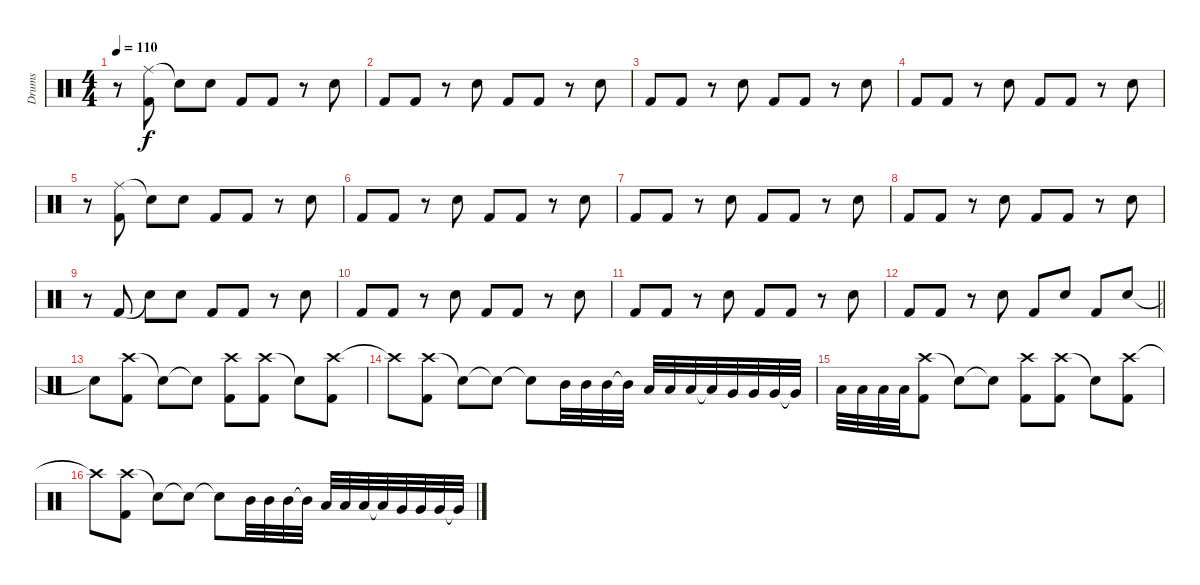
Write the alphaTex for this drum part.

\track ("Drums" "Drums") {instrument percussion}
\staff {score}
\articulation defaults
\ts (4 4)
\tempo 110
\clef neutral
\ks c
r.8{dy f} ("Ride (middle)" "Kick (hit) 2").8 "Snare (hit)"{t}.8 "Snare (hit) 2".8 "Kick (hit) 2".8 "Kick (hit) 2".8 r.8 "Snare (hit) 2".8 |
"Kick (hit) 2".8 "Kick (hit) 2".8 r.8 "Snare (hit) 2".8 "Kick (hit) 2".8 "Kick (hit) 2".8 r.8 "Snare (hit) 2".8 |
"Kick (hit) 2".8 "Kick (hit) 2".8 r.8 "Snare (hit) 2".8 "Kick (hit) 2".8 "Kick (hit) 2".8 r.8 "Snare (hit) 2".8 |
"Kick (hit) 2".8 "Kick (hit) 2".8 r.8 "Snare (hit) 2".8 "Kick (hit) 2".8 "Kick (hit) 2".8 r.8 "Snare (hit) 2".8 |
r.8 ("Ride (middle)" "Kick (hit) 2").8 "Snare (hit)"{t}.8 "Snare (hit) 2".8 "Kick (hit) 2".8 "Kick (hit) 2".8 r.8 "Snare (hit) 2".8 |
"Kick (hit) 2".8 "Kick (hit) 2".8 r.8 "Snare (hit) 2".8 "Kick (hit) 2".8 "Kick (hit) 2".8 r.8 "Snare (hit) 2".8 |
"Kick (hit) 2".8 "Kick (hit) 2".8 r.8 "Snare (hit) 2".8 "Kick (hit) 2".8 "Kick (hit) 2".8 r.8 "Snare (hit) 2".8 |
"Kick (hit) 2".8 "Kick (hit) 2".8 r.8 "Snare (hit) 2".8 "Kick (hit) 2".8 "Kick (hit) 2".8 r.8 "Snare (hit) 2".8 |
r.8 "Kick (hit) 2".8 "Snare (hit)"{t}.8 "Snare (hit) 2".8 "Kick (hit) 2".8 "Kick (hit) 2".8 r.8 "Snare (hit) 2".8 |
"Kick (hit) 2".8 "Kick (hit) 2".8 r.8 "Snare (hit) 2".8 "Kick (hit) 2".8 "Kick (hit) 2".8 r.8 "Snare (hit) 2".8 |
"Kick (hit) 2".8 "Kick (hit) 2".8 r.8 "Snare (hit) 2".8 "Kick (hit) 2".8 "Kick (hit) 2".8 r.8 "Snare (hit) 2".8 |
\barLineRight lightlight "Kick (hit) 2".8 "Kick (hit) 2".8
r.8 "Snare (hit) 2".8 "Kick (hit) 2".8 "Snare (hit) 2".8 "Kick (hit) 2".8 "Snare (hit) 2".8 |
"Snare (hit)"{t}.8 ("Crash high (hit)" "Kick (hit) 2").8 "Snare (hit)"{t}.8 "Snare (hit)"{t}.8 ("Crash high (hit)" "Kick (hit) 2").8 ("Crash high (hit)" "Kick (hit) 2").8 "Snare (hit)"{t}.8 ("Crash high (hit)" "Kick (hit) 2").8 |
"Crash high (hit)"{t}.8 ("Crash high (hit)" "Kick (hit) 2").8 "Snare (hit)"{t}.8 "Snare (hit)"{t}.8 "Snare (hit)"{t}.8 "Mid Tom (hit)".32 "Mid Tom (hit)".32 "Mid Tom (hit)".32 "Mid Tom (hit)"{t}.32 "Low Tom (hit)".32 "Low Tom (hit)".32 "Low Tom (hit)".32 "Low Tom (hit)"{t}.32 "Very Low Tom (hit)".32 "Very Low Tom (hit)".32 "Very Low Tom (hit)".32 "Very Low Tom (hit)"{t}.32 |
"Low Floor Tom (hit)".32 "Low Floor Tom (hit)".32 "Low Floor Tom (hit)".32 "Low Floor Tom (hit)".32 ("Crash high (hit)" "Kick (hit) 2").8 "Snare (hit)"{t}.8 "Snare (hit)"{t}.8 ("Crash high (hit)" "Kick (hit) 2").8 ("Crash high (hit)" "Kick (hit) 2").8 "Snare (hit)"{t}.8 ("Crash high (hit)" "Kick (hit) 2").8 |
"Crash high (hit)"{t}.8 ("Crash high (hit)" "Kick (hit) 2").8 "Snare (hit)"{t}.8 "Snare (hit)"{t}.8 "Snare (hit)"{t}.8 "Mid Tom (hit)".32 "Mid Tom (hit)".32 "Mid Tom (hit)".32 "Mid Tom (hit)"{t}.32 "Low Tom (hit)".32 "Low Tom (hit)".32 "Low Tom (hit)".32 "Low Tom (hit)"{t}.32 "Very Low Tom (hit)".32 "Very Low Tom (hit)".32 "Very Low Tom (hit)".32 "Very Low Tom (hit)"{t}.32
